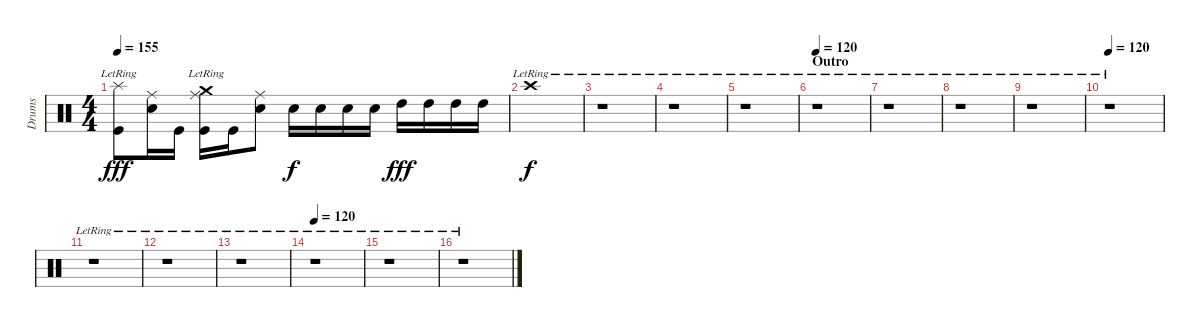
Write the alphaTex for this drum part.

\track ("Drums" "Drums") {instrument percussion}
\staff {score}
\articulation defaults
\ts (4 4)
\tempo 155
\clef neutral
\ks c
("Splash (hit)"{lr} "Kick (hit)").8{dy fff} ("Ride (middle)" "Snare (hit) 2").16 "Kick (hit)".16 ("Crash medium (hit)"{lr} "Ride (middle)" "Kick (hit)"{t}).16 "Kick (hit)".16 ("Ride (middle)" "Snare (hit) 2").8 "Snare (hit) 2".16{dy f} "Snare (hit) 2".16 "Snare (hit) 2".16 "Snare (hit) 2".16 "High Tom (hit)".16{dy fff balance 3} "High Tom (hit)".16 "High Tom (hit)".16 "High Tom (hit)".16 |
"Crash high (hit)"{lr}.1{dy f balance 8} |
r.1 |
r.1 |
r.1 |
\section ("" "Outro")
\tempo 120
r.1 |
r.1 |
r.1 |
r.1 |
\tempo 120
r.1 |
r.1 |
r.1 |
r.1 |
\tempo 120
r.1 |
r.1 |
r.1
